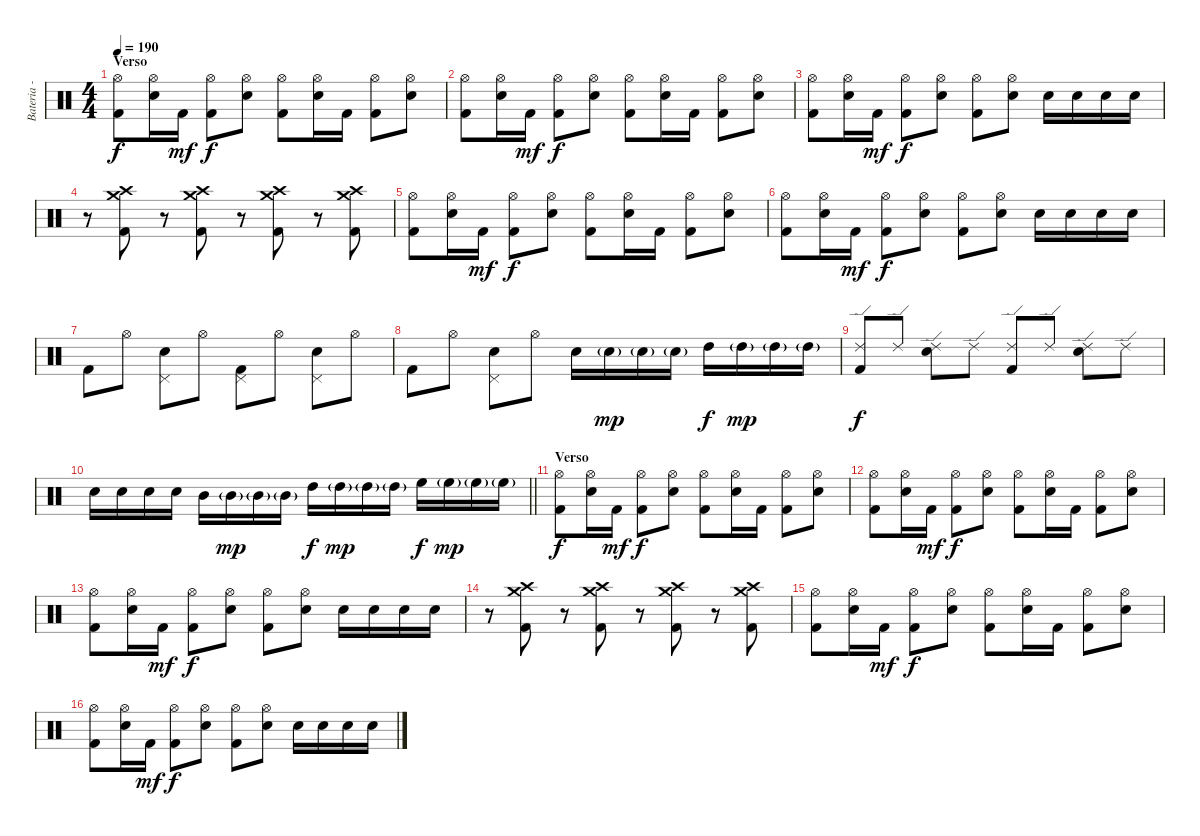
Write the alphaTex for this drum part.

\track ("Bateria - Larzon" "Bateria - ") {instrument percussion}
\staff {score}
\articulation defaults
\ts (4 4)
\section ("" "Verso ")
\tempo 190
\clef neutral
\ks c
("Kick (hit) 2" "Hi-Hat (open)").8{dy f} ("Electric Snare (hit)" "Hi-Hat (open)").16 "Kick (hit) 2".16{dy mf} ("Kick (hit) 2" "Hi-Hat (open)").8{dy f} ("Electric Snare (hit)" "Hi-Hat (open)").8 ("Kick (hit) 2" "Hi-Hat (open)").8 ("Electric Snare (hit)" "Hi-Hat (open)").16 "Kick (hit) 2".16 ("Kick (hit) 2" "Hi-Hat (open)").8 ("Electric Snare (hit)" "Hi-Hat (open)").8 |
("Kick (hit) 2" "Hi-Hat (open)").8 ("Electric Snare (hit)" "Hi-Hat (open)").16 "Kick (hit) 2".16{dy mf} ("Kick (hit) 2" "Hi-Hat (open)").8{dy f} ("Electric Snare (hit)" "Hi-Hat (open)").8 ("Kick (hit) 2" "Hi-Hat (open)").8 ("Electric Snare (hit)" "Hi-Hat (open)").16 "Kick (hit) 2".16 ("Kick (hit) 2" "Hi-Hat (open)").8 ("Electric Snare (hit)" "Hi-Hat (open)").8 |
("Kick (hit) 2" "Hi-Hat (open)").8 ("Electric Snare (hit)" "Hi-Hat (open)").16 "Kick (hit) 2".16{dy mf} ("Kick (hit) 2" "Hi-Hat (open)").8{dy f} ("Electric Snare (hit)" "Hi-Hat (open)").8 ("Kick (hit) 2" "Hi-Hat (open)").8 ("Electric Snare (hit)" "Hi-Hat (open)").8 "Electric Snare (hit)".16 "Electric Snare (hit)".16 "Electric Snare (hit)".16 "Electric Snare (hit)".16 |
r.8 ("Kick (hit) 2" "Crash medium (hit)" "Crash high (hit)").8 r.8 ("Kick (hit) 2" "Crash medium (hit)" "Crash high (hit)").8 r.8 ("Kick (hit) 2" "Crash medium (hit)" "Crash high (hit)").8 r.8 ("Kick (hit) 2" "Crash medium (hit)" "Crash high (hit)").8 |
("Kick (hit) 2" "Hi-Hat (open)").8 ("Electric Snare (hit)" "Hi-Hat (open)").16 "Kick (hit) 2".16{dy mf} ("Kick (hit) 2" "Hi-Hat (open)").8{dy f} ("Electric Snare (hit)" "Hi-Hat (open)").8 ("Kick (hit) 2" "Hi-Hat (open)").8 ("Electric Snare (hit)" "Hi-Hat (open)").16 "Kick (hit) 2".16 ("Kick (hit) 2" "Hi-Hat (open)").8 ("Electric Snare (hit)" "Hi-Hat (open)").8 |
("Kick (hit) 2" "Hi-Hat (open)").8 ("Electric Snare (hit)" "Hi-Hat (open)").16 "Kick (hit) 2".16{dy mf} ("Kick (hit) 2" "Hi-Hat (open)").8{dy f} ("Electric Snare (hit)" "Hi-Hat (open)").8 ("Kick (hit) 2" "Hi-Hat (open)").8 ("Electric Snare (hit)" "Hi-Hat (open)").8 "Electric Snare (hit)".16 "Electric Snare (hit)".16 "Electric Snare (hit)".16 "Electric Snare (hit)".16 |
"Kick (hit) 2".8 "Hi-Hat (open)".8 ("Electric Snare (hit)" "Pedal Hi-Hat (hit)").8 "Hi-Hat (open)".8 ("Kick (hit) 2" "Pedal Hi-Hat (hit)").8 "Hi-Hat (open)".8 ("Electric Snare (hit)" "Pedal Hi-Hat (hit)").8 "Hi-Hat (open)".8 |
"Kick (hit) 2".8 "Hi-Hat (open)".8 ("Electric Snare (hit)" "Pedal Hi-Hat (hit)").8 "Hi-Hat (open)".8 "Electric Snare (hit)".16 "Electric Snare (hit)"{g}.16{dy mp} "Electric Snare (hit)"{g}.16 "Electric Snare (hit)"{g}.16 "High Tom (hit)".16{dy f} "High Tom (hit)"{g}.16{dy mp} "High Tom (hit)"{g}.16 "High Tom (hit)"{g}.16 |
("Kick (hit) 2" "Ride (edge) 2").8{dy f} "Ride (edge) 2".8 ("Electric Snare (hit)" "Ride (edge) 2").8 "Ride (edge) 2".8 ("Kick (hit) 2" "Ride (edge) 2").8 "Ride (edge) 2".8 ("Electric Snare (hit)" "Ride (edge) 2").8 "Ride (edge) 2".8 |
\barLineRight lightlight "Electric Snare (hit)".16 "Electric Snare (hit)".16 "Electric Snare (hit)".16 "Electric Snare (hit)".16 "Mid Tom (hit)".16 "Mid Tom (hit)"{g}.16{dy mp} "Mid Tom (hit)"{g}.16 "Mid Tom (hit)"{g}.16 "High Tom (hit)".16{dy f} "High Tom (hit)"{g}.16{dy mp} "High Tom (hit)"{g}.16 "High Tom (hit)"{g}.16 "High Floor Tom (hit)".16{dy f} "High Floor Tom (hit)"{g}.16{dy mp} "High Floor Tom (hit)"{g}.16 "High Floor Tom (hit)"{g}.16
|
\section ("" "Verso")
("Kick (hit) 2" "Hi-Hat (open)").8{dy f} ("Electric Snare (hit)" "Hi-Hat (open)").16 "Kick (hit) 2".16{dy mf} ("Kick (hit) 2" "Hi-Hat (open)").8{dy f} ("Electric Snare (hit)" "Hi-Hat (open)").8 ("Kick (hit) 2" "Hi-Hat (open)").8 ("Electric Snare (hit)" "Hi-Hat (open)").16 "Kick (hit) 2".16 ("Kick (hit) 2" "Hi-Hat (open)").8 ("Electric Snare (hit)" "Hi-Hat (open)").8 |
("Kick (hit) 2" "Hi-Hat (open)").8 ("Electric Snare (hit)" "Hi-Hat (open)").16 "Kick (hit) 2".16{dy mf} ("Kick (hit) 2" "Hi-Hat (open)").8{dy f} ("Electric Snare (hit)" "Hi-Hat (open)").8 ("Kick (hit) 2" "Hi-Hat (open)").8 ("Electric Snare (hit)" "Hi-Hat (open)").16 "Kick (hit) 2".16 ("Kick (hit) 2" "Hi-Hat (open)").8 ("Electric Snare (hit)" "Hi-Hat (open)").8 |
("Kick (hit) 2" "Hi-Hat (open)").8 ("Electric Snare (hit)" "Hi-Hat (open)").16 "Kick (hit) 2".16{dy mf} ("Kick (hit) 2" "Hi-Hat (open)").8{dy f} ("Electric Snare (hit)" "Hi-Hat (open)").8 ("Kick (hit) 2" "Hi-Hat (open)").8 ("Electric Snare (hit)" "Hi-Hat (open)").8 "Electric Snare (hit)".16 "Electric Snare (hit)".16 "Electric Snare (hit)".16 "Electric Snare (hit)".16 |
r.8 ("Kick (hit) 2" "Crash medium (hit)" "Crash high (hit)").8 r.8 ("Kick (hit) 2" "Crash medium (hit)" "Crash high (hit)").8 r.8 ("Kick (hit) 2" "Crash medium (hit)" "Crash high (hit)").8 r.8 ("Kick (hit) 2" "Crash medium (hit)" "Crash high (hit)").8 |
("Kick (hit) 2" "Hi-Hat (open)").8 ("Electric Snare (hit)" "Hi-Hat (open)").16 "Kick (hit) 2".16{dy mf} ("Kick (hit) 2" "Hi-Hat (open)").8{dy f} ("Electric Snare (hit)" "Hi-Hat (open)").8 ("Kick (hit) 2" "Hi-Hat (open)").8 ("Electric Snare (hit)" "Hi-Hat (open)").16 "Kick (hit) 2".16 ("Kick (hit) 2" "Hi-Hat (open)").8 ("Electric Snare (hit)" "Hi-Hat (open)").8 |
("Kick (hit) 2" "Hi-Hat (open)").8 ("Electric Snare (hit)" "Hi-Hat (open)").16 "Kick (hit) 2".16{dy mf} ("Kick (hit) 2" "Hi-Hat (open)").8{dy f} ("Electric Snare (hit)" "Hi-Hat (open)").8 ("Kick (hit) 2" "Hi-Hat (open)").8 ("Electric Snare (hit)" "Hi-Hat (open)").8 "Electric Snare (hit)".16 "Electric Snare (hit)".16 "Electric Snare (hit)".16 "Electric Snare (hit)".16
